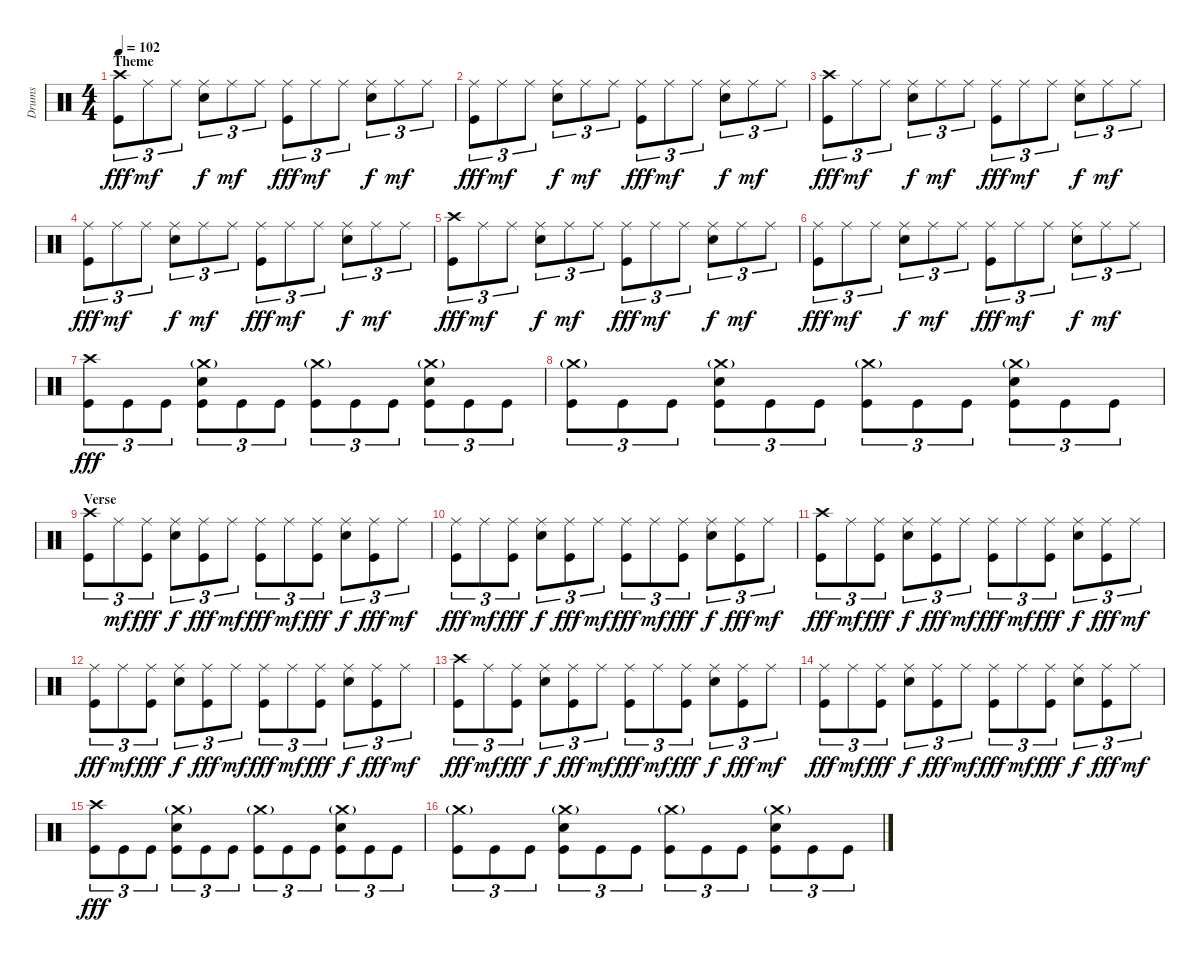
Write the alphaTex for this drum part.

\track ("Drums" "Drums") {instrument percussion}
\staff {score}
\articulation defaults
\ts (4 4)
\section ("" "Theme")
\tempo 102
\clef neutral
\ks c
("Crash high (hit)" "Kick (hit)").8{tu (3 2) dy fff} "Ride (middle)".8{tu (3 2) dy mf} "Ride (middle)".8{tu (3 2)} ("Ride (middle)" "Snare (hit) 2").8{tu (3 2) dy f} "Ride (middle)".8{tu (3 2) dy mf} "Ride (middle)".8{tu (3 2)} ("Ride (middle)" "Kick (hit)").8{tu (3 2) dy fff} "Ride (middle)".8{tu (3 2) dy mf} "Ride (middle)".8{tu (3 2)} ("Ride (middle)" "Snare (hit) 2").8{tu (3 2) dy f} "Ride (middle)".8{tu (3 2) dy mf} "Ride (middle)".8{tu (3 2)} |
("Ride (middle)" "Kick (hit)").8{tu (3 2) dy fff} "Ride (middle)".8{tu (3 2) dy mf} "Ride (middle)".8{tu (3 2)} ("Ride (middle)" "Snare (hit) 2").8{tu (3 2) dy f} "Ride (middle)".8{tu (3 2) dy mf} "Ride (middle)".8{tu (3 2)} ("Ride (middle)" "Kick (hit)").8{tu (3 2) dy fff} "Ride (middle)".8{tu (3 2) dy mf} "Ride (middle)".8{tu (3 2)} ("Ride (middle)" "Snare (hit) 2").8{tu (3 2) dy f} "Ride (middle)".8{tu (3 2) dy mf} "Ride (middle)".8{tu (3 2)} |
("Crash high (hit)" "Kick (hit)").8{tu (3 2) dy fff} "Ride (middle)".8{tu (3 2) dy mf} "Ride (middle)".8{tu (3 2)} ("Ride (middle)" "Snare (hit) 2").8{tu (3 2) dy f} "Ride (middle)".8{tu (3 2) dy mf} "Ride (middle)".8{tu (3 2)} ("Ride (middle)" "Kick (hit)").8{tu (3 2) dy fff} "Ride (middle)".8{tu (3 2) dy mf} "Ride (middle)".8{tu (3 2)} ("Ride (middle)" "Snare (hit) 2").8{tu (3 2) dy f} "Ride (middle)".8{tu (3 2) dy mf} "Ride (middle)".8{tu (3 2)} |
("Ride (middle)" "Kick (hit)").8{tu (3 2) dy fff} "Ride (middle)".8{tu (3 2) dy mf} "Ride (middle)".8{tu (3 2)} ("Ride (middle)" "Snare (hit) 2").8{tu (3 2) dy f} "Ride (middle)".8{tu (3 2) dy mf} "Ride (middle)".8{tu (3 2)} ("Ride (middle)" "Kick (hit)").8{tu (3 2) dy fff} "Ride (middle)".8{tu (3 2) dy mf} "Ride (middle)".8{tu (3 2)} ("Ride (middle)" "Snare (hit) 2").8{tu (3 2) dy f} "Ride (middle)".8{tu (3 2) dy mf} "Ride (middle)".8{tu (3 2)} |
("Crash high (hit)" "Kick (hit)").8{tu (3 2) dy fff} "Ride (middle)".8{tu (3 2) dy mf} "Ride (middle)".8{tu (3 2)} ("Ride (middle)" "Snare (hit) 2").8{tu (3 2) dy f} "Ride (middle)".8{tu (3 2) dy mf} "Ride (middle)".8{tu (3 2)} ("Ride (middle)" "Kick (hit)").8{tu (3 2) dy fff} "Ride (middle)".8{tu (3 2) dy mf} "Ride (middle)".8{tu (3 2)} ("Ride (middle)" "Snare (hit) 2").8{tu (3 2) dy f} "Ride (middle)".8{tu (3 2) dy mf} "Ride (middle)".8{tu (3 2)} |
("Ride (middle)" "Kick (hit)").8{tu (3 2) dy fff} "Ride (middle)".8{tu (3 2) dy mf} "Ride (middle)".8{tu (3 2)} ("Ride (middle)" "Snare (hit) 2").8{tu (3 2) dy f} "Ride (middle)".8{tu (3 2) dy mf} "Ride (middle)".8{tu (3 2)} ("Ride (middle)" "Kick (hit)").8{tu (3 2) dy fff} "Ride (middle)".8{tu (3 2) dy mf} "Ride (middle)".8{tu (3 2)} ("Ride (middle)" "Snare (hit) 2").8{tu (3 2) dy f} "Ride (middle)".8{tu (3 2) dy mf} "Ride (middle)".8{tu (3 2)} |
("Crash high (hit)" "Kick (hit)").8{tu (3 2) dy fff} "Kick (hit)".8{tu (3 2)} "Kick (hit)".8{tu (3 2)} ("Crash medium (hit)"{g} "Snare (hit) 2" "Kick (hit)").8{tu (3 2)} "Kick (hit)".8{tu (3 2)} "Kick (hit)".8{tu (3 2)} ("Crash medium (hit)"{g} "Kick (hit)").8{tu (3 2)} "Kick (hit)".8{tu (3 2)} "Kick (hit)".8{tu (3 2)} ("Crash medium (hit)"{g} "Snare (hit) 2" "Kick (hit)").8{tu (3 2)} "Kick (hit)".8{tu (3 2)} "Kick (hit)".8{tu (3 2)} |
("Crash medium (hit)"{g} "Kick (hit)").8{tu (3 2)} "Kick (hit)".8{tu (3 2)} "Kick (hit)".8{tu (3 2)} ("Crash medium (hit)"{g} "Snare (hit) 2" "Kick (hit)").8{tu (3 2)} "Kick (hit)".8{tu (3 2)} "Kick (hit)".8{tu (3 2)} ("Crash medium (hit)"{g} "Kick (hit)").8{tu (3 2)} "Kick (hit)".8{tu (3 2)} "Kick (hit)".8{tu (3 2)} ("Crash medium (hit)"{g} "Snare (hit) 2" "Kick (hit)").8{tu (3 2)} "Kick (hit)".8{tu (3 2)} "Kick (hit)".8{tu (3 2)} |
\section ("" "Verse")
("Crash high (hit)" "Kick (hit)").8{tu (3 2)} "Ride (middle)".8{tu (3 2) dy mf} ("Ride (middle)" "Kick (hit)").8{tu (3 2) dy fff} ("Ride (middle)" "Snare (hit) 2").8{tu (3 2) dy f} ("Ride (middle)" "Kick (hit)").8{tu (3 2) dy fff} "Ride (middle)".8{tu (3 2) dy mf} ("Ride (middle)" "Kick (hit)").8{tu (3 2) dy fff} "Ride (middle)".8{tu (3 2) dy mf} ("Ride (middle)" "Kick (hit)").8{tu (3 2) dy fff} ("Ride (middle)" "Snare (hit) 2").8{tu (3 2) dy f} ("Ride (middle)" "Kick (hit)").8{tu (3 2) dy fff} "Ride (middle)".8{tu (3 2) dy mf} |
("Ride (middle)" "Kick (hit)").8{tu (3 2) dy fff} "Ride (middle)".8{tu (3 2) dy mf} ("Ride (middle)" "Kick (hit)").8{tu (3 2) dy fff} ("Ride (middle)" "Snare (hit) 2").8{tu (3 2) dy f} ("Ride (middle)" "Kick (hit)").8{tu (3 2) dy fff} "Ride (middle)".8{tu (3 2) dy mf} ("Ride (middle)" "Kick (hit)").8{tu (3 2) dy fff} "Ride (middle)".8{tu (3 2) dy mf} ("Ride (middle)" "Kick (hit)").8{tu (3 2) dy fff} ("Ride (middle)" "Snare (hit) 2").8{tu (3 2) dy f} ("Ride (middle)" "Kick (hit)").8{tu (3 2) dy fff} "Ride (middle)".8{tu (3 2) dy mf} |
("Crash high (hit)" "Kick (hit)").8{tu (3 2) dy fff} "Ride (middle)".8{tu (3 2) dy mf} ("Ride (middle)" "Kick (hit)").8{tu (3 2) dy fff} ("Ride (middle)" "Snare (hit) 2").8{tu (3 2) dy f} ("Ride (middle)" "Kick (hit)").8{tu (3 2) dy fff} "Ride (middle)".8{tu (3 2) dy mf} ("Ride (middle)" "Kick (hit)").8{tu (3 2) dy fff} "Ride (middle)".8{tu (3 2) dy mf} ("Ride (middle)" "Kick (hit)").8{tu (3 2) dy fff} ("Ride (middle)" "Snare (hit) 2").8{tu (3 2) dy f} ("Ride (middle)" "Kick (hit)").8{tu (3 2) dy fff} "Ride (middle)".8{tu (3 2) dy mf} |
("Ride (middle)" "Kick (hit)").8{tu (3 2) dy fff} "Ride (middle)".8{tu (3 2) dy mf} ("Ride (middle)" "Kick (hit)").8{tu (3 2) dy fff} ("Ride (middle)" "Snare (hit) 2").8{tu (3 2) dy f} ("Ride (middle)" "Kick (hit)").8{tu (3 2) dy fff} "Ride (middle)".8{tu (3 2) dy mf} ("Ride (middle)" "Kick (hit)").8{tu (3 2) dy fff} "Ride (middle)".8{tu (3 2) dy mf} ("Ride (middle)" "Kick (hit)").8{tu (3 2) dy fff} ("Ride (middle)" "Snare (hit) 2").8{tu (3 2) dy f} ("Ride (middle)" "Kick (hit)").8{tu (3 2) dy fff} "Ride (middle)".8{tu (3 2) dy mf} |
("Crash high (hit)" "Kick (hit)").8{tu (3 2) dy fff} "Ride (middle)".8{tu (3 2) dy mf} ("Ride (middle)" "Kick (hit)").8{tu (3 2) dy fff} ("Ride (middle)" "Snare (hit) 2").8{tu (3 2) dy f} ("Ride (middle)" "Kick (hit)").8{tu (3 2) dy fff} "Ride (middle)".8{tu (3 2) dy mf} ("Ride (middle)" "Kick (hit)").8{tu (3 2) dy fff} "Ride (middle)".8{tu (3 2) dy mf} ("Ride (middle)" "Kick (hit)").8{tu (3 2) dy fff} ("Ride (middle)" "Snare (hit) 2").8{tu (3 2) dy f} ("Ride (middle)" "Kick (hit)").8{tu (3 2) dy fff} "Ride (middle)".8{tu (3 2) dy mf} |
("Ride (middle)" "Kick (hit)").8{tu (3 2) dy fff} "Ride (middle)".8{tu (3 2) dy mf} ("Ride (middle)" "Kick (hit)").8{tu (3 2) dy fff} ("Ride (middle)" "Snare (hit) 2").8{tu (3 2) dy f} ("Ride (middle)" "Kick (hit)").8{tu (3 2) dy fff} "Ride (middle)".8{tu (3 2) dy mf} ("Ride (middle)" "Kick (hit)").8{tu (3 2) dy fff} "Ride (middle)".8{tu (3 2) dy mf} ("Ride (middle)" "Kick (hit)").8{tu (3 2) dy fff} ("Ride (middle)" "Snare (hit) 2").8{tu (3 2) dy f} ("Ride (middle)" "Kick (hit)").8{tu (3 2) dy fff} "Ride (middle)".8{tu (3 2) dy mf} |
("Crash high (hit)" "Kick (hit)").8{tu (3 2) dy fff} "Kick (hit)".8{tu (3 2)} "Kick (hit)".8{tu (3 2)} ("Crash medium (hit)"{g} "Snare (hit) 2" "Kick (hit)").8{tu (3 2)} "Kick (hit)".8{tu (3 2)} "Kick (hit)".8{tu (3 2)} ("Crash medium (hit)"{g} "Kick (hit)").8{tu (3 2)} "Kick (hit)".8{tu (3 2)} "Kick (hit)".8{tu (3 2)} ("Crash medium (hit)"{g} "Snare (hit) 2" "Kick (hit)").8{tu (3 2)} "Kick (hit)".8{tu (3 2)} "Kick (hit)".8{tu (3 2)} |
("Crash medium (hit)"{g} "Kick (hit)").8{tu (3 2)} "Kick (hit)".8{tu (3 2)} "Kick (hit)".8{tu (3 2)} ("Crash medium (hit)"{g} "Snare (hit) 2" "Kick (hit)").8{tu (3 2)} "Kick (hit)".8{tu (3 2)} "Kick (hit)".8{tu (3 2)} ("Crash medium (hit)"{g} "Kick (hit)").8{tu (3 2)} "Kick (hit)".8{tu (3 2)} "Kick (hit)".8{tu (3 2)} ("Crash medium (hit)"{g} "Snare (hit) 2" "Kick (hit)").8{tu (3 2)} "Kick (hit)".8{tu (3 2)} "Kick (hit)".8{tu (3 2)}
